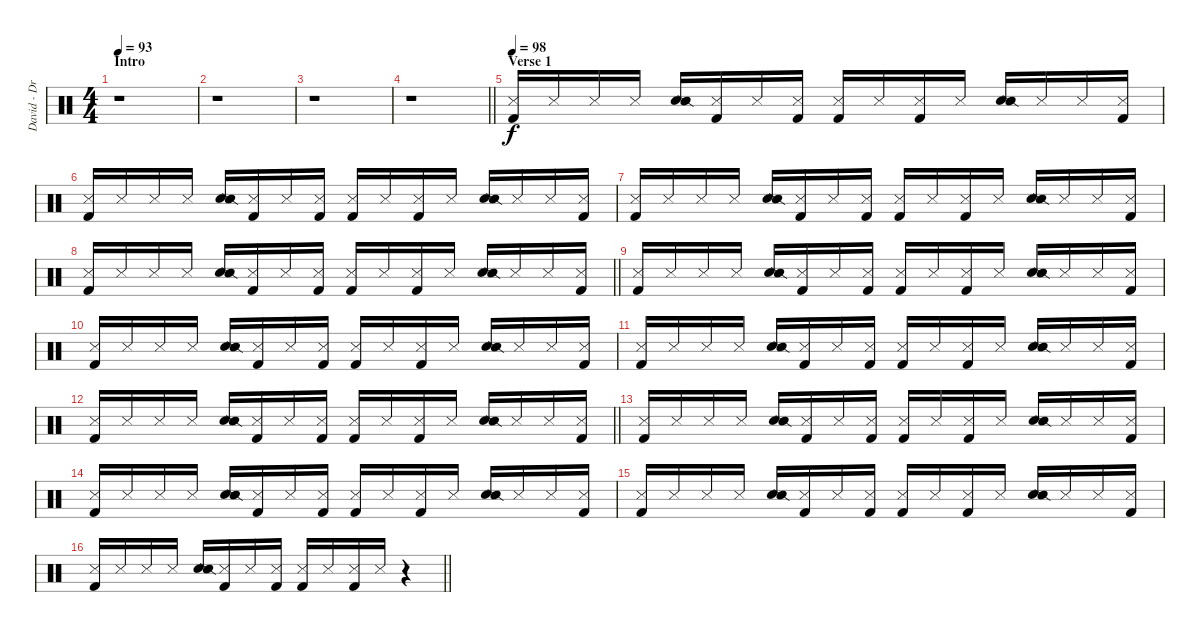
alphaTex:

\track ("David - Drums" "David - Dr") {instrument percussion}
\staff {score}
\articulation defaults
\ts (4 4)
\section ("" "Intro")
\tempo 93
\tempo 98
\tempo 93
\clef neutral
\ks c
r.1{dy f} |
r.1 |
r.1 |
\barLineRight lightlight
r.1 |
\section ("" "Verse 1")
\tempo 98
("Kick (hit) 2" "Metronome (hit)").16 "Metronome (hit)".16 "Metronome (hit)".16 "Metronome (hit)".16 ("Hand Clap (hit)" "Snare (side stick) 2").16 ("Kick (hit) 2" "Metronome (hit)").16 "Metronome (hit)".16 ("Kick (hit) 2" "Metronome (hit)").16 ("Kick (hit) 2" "Metronome (hit)").16 "Metronome (hit)".16 ("Kick (hit) 2" "Metronome (hit)").16 "Metronome (hit)".16 ("Hand Clap (hit)" "Snare (side stick) 2").16 "Metronome (hit)".16 "Metronome (hit)".16 ("Kick (hit) 2" "Metronome (hit)").16 |
("Kick (hit) 2" "Metronome (hit)").16 "Metronome (hit)".16 "Metronome (hit)".16 "Metronome (hit)".16 ("Hand Clap (hit)" "Snare (side stick) 2").16 ("Kick (hit) 2" "Metronome (hit)").16 "Metronome (hit)".16 ("Kick (hit) 2" "Metronome (hit)").16 ("Kick (hit) 2" "Metronome (hit)").16 "Metronome (hit)".16 ("Kick (hit) 2" "Metronome (hit)").16 "Metronome (hit)".16 ("Hand Clap (hit)" "Snare (side stick) 2").16 "Metronome (hit)".16 "Metronome (hit)".16 ("Kick (hit) 2" "Metronome (hit)").16 |
("Kick (hit) 2" "Metronome (hit)").16 "Metronome (hit)".16 "Metronome (hit)".16 "Metronome (hit)".16 ("Hand Clap (hit)" "Snare (side stick) 2").16 ("Kick (hit) 2" "Metronome (hit)").16 "Metronome (hit)".16 ("Kick (hit) 2" "Metronome (hit)").16 ("Kick (hit) 2" "Metronome (hit)").16 "Metronome (hit)".16 ("Kick (hit) 2" "Metronome (hit)").16 "Metronome (hit)".16 ("Hand Clap (hit)" "Snare (side stick) 2").16 "Metronome (hit)".16 "Metronome (hit)".16 ("Kick (hit) 2" "Metronome (hit)").16 |
\barLineRight lightlight
("Kick (hit) 2" "Metronome (hit)").16 "Metronome (hit)".16 "Metronome (hit)".16 "Metronome (hit)".16 ("Hand Clap (hit)" "Snare (side stick) 2").16 ("Kick (hit) 2" "Metronome (hit)").16 "Metronome (hit)".16 ("Kick (hit) 2" "Metronome (hit)").16 ("Kick (hit) 2" "Metronome (hit)").16 "Metronome (hit)".16 ("Kick (hit) 2" "Metronome (hit)").16 "Metronome (hit)".16 ("Hand Clap (hit)" "Snare (side stick) 2").16 "Metronome (hit)".16 "Metronome (hit)".16 ("Kick (hit) 2" "Metronome (hit)").16 |
("Kick (hit) 2" "Metronome (hit)").16 "Metronome (hit)".16 "Metronome (hit)".16 "Metronome (hit)".16 ("Hand Clap (hit)" "Snare (side stick) 2").16 ("Kick (hit) 2" "Metronome (hit)").16 "Metronome (hit)".16 ("Kick (hit) 2" "Metronome (hit)").16 ("Kick (hit) 2" "Metronome (hit)").16 "Metronome (hit)".16 ("Kick (hit) 2" "Metronome (hit)").16 "Metronome (hit)".16 ("Hand Clap (hit)" "Snare (side stick) 2").16 "Metronome (hit)".16 "Metronome (hit)".16 ("Kick (hit) 2" "Metronome (hit)").16 |
("Kick (hit) 2" "Metronome (hit)").16 "Metronome (hit)".16 "Metronome (hit)".16 "Metronome (hit)".16 ("Hand Clap (hit)" "Snare (side stick) 2").16 ("Kick (hit) 2" "Metronome (hit)").16 "Metronome (hit)".16 ("Kick (hit) 2" "Metronome (hit)").16 ("Kick (hit) 2" "Metronome (hit)").16 "Metronome (hit)".16 ("Kick (hit) 2" "Metronome (hit)").16 "Metronome (hit)".16 ("Hand Clap (hit)" "Snare (side stick) 2").16 "Metronome (hit)".16 "Metronome (hit)".16 ("Kick (hit) 2" "Metronome (hit)").16 |
("Kick (hit) 2" "Metronome (hit)").16 "Metronome (hit)".16 "Metronome (hit)".16 "Metronome (hit)".16 ("Hand Clap (hit)" "Snare (side stick) 2").16 ("Kick (hit) 2" "Metronome (hit)").16 "Metronome (hit)".16 ("Kick (hit) 2" "Metronome (hit)").16 ("Kick (hit) 2" "Metronome (hit)").16 "Metronome (hit)".16 ("Kick (hit) 2" "Metronome (hit)").16 "Metronome (hit)".16 ("Hand Clap (hit)" "Snare (side stick) 2").16 "Metronome (hit)".16 "Metronome (hit)".16 ("Kick (hit) 2" "Metronome (hit)").16 |
\barLineRight lightlight
("Kick (hit) 2" "Metronome (hit)").16 "Metronome (hit)".16 "Metronome (hit)".16 "Metronome (hit)".16 ("Hand Clap (hit)" "Snare (side stick) 2").16 ("Kick (hit) 2" "Metronome (hit)").16 "Metronome (hit)".16 ("Kick (hit) 2" "Metronome (hit)").16 ("Kick (hit) 2" "Metronome (hit)").16 "Metronome (hit)".16 ("Kick (hit) 2" "Metronome (hit)").16 "Metronome (hit)".16 ("Hand Clap (hit)" "Snare (side stick) 2").16 "Metronome (hit)".16 "Metronome (hit)".16 ("Kick (hit) 2" "Metronome (hit)").16 |
("Kick (hit) 2" "Metronome (hit)").16 "Metronome (hit)".16 "Metronome (hit)".16 "Metronome (hit)".16 ("Hand Clap (hit)" "Snare (side stick) 2").16 ("Kick (hit) 2" "Metronome (hit)").16 "Metronome (hit)".16 ("Kick (hit) 2" "Metronome (hit)").16 ("Kick (hit) 2" "Metronome (hit)").16 "Metronome (hit)".16 ("Kick (hit) 2" "Metronome (hit)").16 "Metronome (hit)".16 ("Hand Clap (hit)" "Snare (side stick) 2").16 "Metronome (hit)".16 "Metronome (hit)".16 ("Kick (hit) 2" "Metronome (hit)").16 |
("Kick (hit) 2" "Metronome (hit)").16 "Metronome (hit)".16 "Metronome (hit)".16 "Metronome (hit)".16 ("Hand Clap (hit)" "Snare (side stick) 2").16 ("Kick (hit) 2" "Metronome (hit)").16 "Metronome (hit)".16 ("Kick (hit) 2" "Metronome (hit)").16 ("Kick (hit) 2" "Metronome (hit)").16 "Metronome (hit)".16 ("Kick (hit) 2" "Metronome (hit)").16 "Metronome (hit)".16 ("Hand Clap (hit)" "Snare (side stick) 2").16 "Metronome (hit)".16 "Metronome (hit)".16 ("Kick (hit) 2" "Metronome (hit)").16 |
("Kick (hit) 2" "Metronome (hit)").16 "Metronome (hit)".16 "Metronome (hit)".16 "Metronome (hit)".16 ("Hand Clap (hit)" "Snare (side stick) 2").16 ("Kick (hit) 2" "Metronome (hit)").16 "Metronome (hit)".16 ("Kick (hit) 2" "Metronome (hit)").16 ("Kick (hit) 2" "Metronome (hit)").16 "Metronome (hit)".16 ("Kick (hit) 2" "Metronome (hit)").16 "Metronome (hit)".16 ("Hand Clap (hit)" "Snare (side stick) 2").16 "Metronome (hit)".16 "Metronome (hit)".16 ("Kick (hit) 2" "Metronome (hit)").16 |
\barLineRight lightlight
("Kick (hit) 2" "Metronome (hit)").16 "Metronome (hit)".16 "Metronome (hit)".16 "Metronome (hit)".16 ("Hand Clap (hit)" "Snare (side stick) 2").16 ("Kick (hit) 2" "Metronome (hit)").16 "Metronome (hit)".16 ("Kick (hit) 2" "Metronome (hit)").16 ("Kick (hit) 2" "Metronome (hit)").16 "Metronome (hit)".16 ("Kick (hit) 2" "Metronome (hit)").16 "Metronome (hit)".16 r.4
